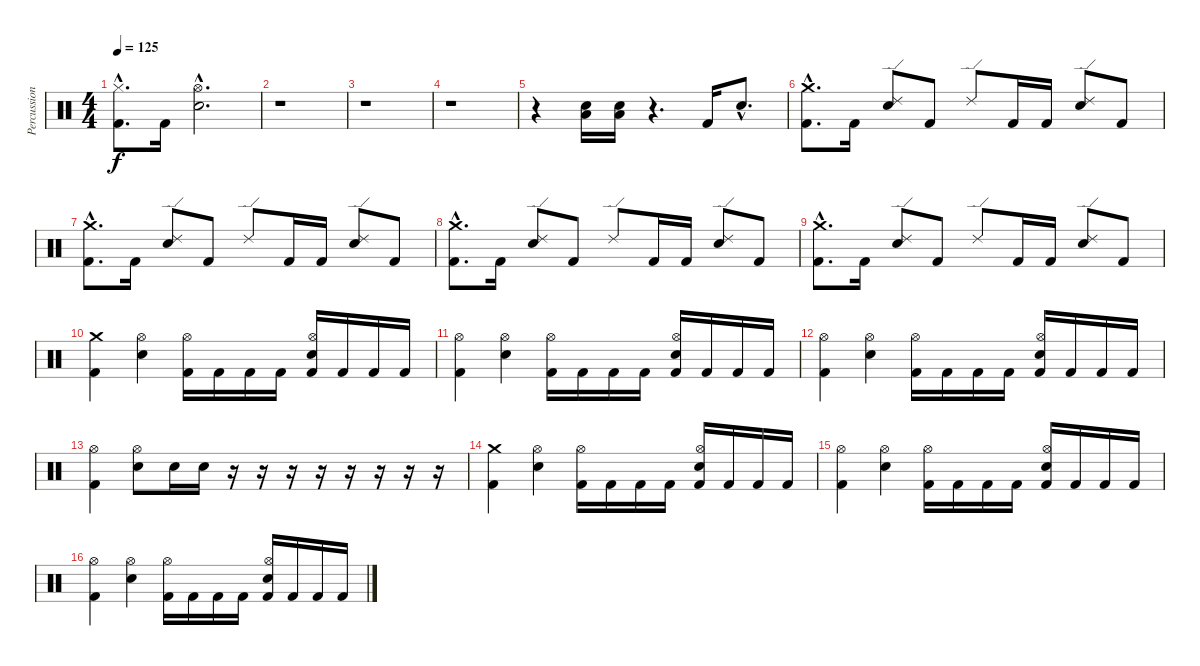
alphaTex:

\track ("Percussion" "Percussion") {instrument percussion}
\staff {score}
\articulation defaults
\ts (4 4)
\tempo 125
\clef neutral
\ks c
("Hi-Hat (closed)"{hac} "Kick (hit) 2"{hac}).8{d dy f} "Kick (hit) 2".16 ("Hi-Hat (open)"{hac} "Electric Snare (hit)"{hac}).2{d} |
r.1 |
r.1 |
r.1 |
r.4 ("Low Floor Tom (hit)" "Electric Snare (hit)").16 ("Low Floor Tom (hit)" "Electric Snare (hit)").16 r.4{d} "Kick (hit) 2".16 "Electric Snare (hit)"{hac}.8{d} |
("Crash medium (hit)"{hac} "Kick (hit) 2"{hac}).8{d} "Kick (hit) 2".16 ("Ride (edge) 2" "Electric Snare (hit)").8 "Kick (hit) 2".8 "Ride (edge) 2".8 "Kick (hit) 2".16 "Kick (hit) 2".16 ("Ride (edge) 2" "Electric Snare (hit)").8 "Kick (hit) 2".8 |
("Crash medium (hit)"{hac} "Kick (hit) 2"{hac}).8{d} "Kick (hit) 2".16 ("Ride (edge) 2" "Electric Snare (hit)").8 "Kick (hit) 2".8 "Ride (edge) 2".8 "Kick (hit) 2".16 "Kick (hit) 2".16 ("Ride (edge) 2" "Electric Snare (hit)").8 "Kick (hit) 2".8 |
("Crash medium (hit)"{hac} "Kick (hit) 2"{hac}).8{d} "Kick (hit) 2".16 ("Ride (edge) 2" "Electric Snare (hit)").8 "Kick (hit) 2".8 "Ride (edge) 2".8 "Kick (hit) 2".16 "Kick (hit) 2".16 ("Ride (edge) 2" "Electric Snare (hit)").8 "Kick (hit) 2".8 |
("Crash medium (hit)"{hac} "Kick (hit) 2"{hac}).8{d} "Kick (hit) 2".16 ("Ride (edge) 2" "Electric Snare (hit)").8 "Kick (hit) 2".8 "Ride (edge) 2".8 "Kick (hit) 2".16 "Kick (hit) 2".16 ("Ride (edge) 2" "Electric Snare (hit)").8 "Kick (hit) 2".8 |
("Crash medium (hit)" "Kick (hit) 2").4 ("Hi-Hat (open)" "Electric Snare (hit)").4 ("Hi-Hat (open)" "Kick (hit) 2").16 "Kick (hit) 2".16 "Kick (hit) 2".16 "Kick (hit) 2".16 ("Hi-Hat (open)" "Electric Snare (hit)" "Kick (hit) 2").16 "Kick (hit) 2".16 "Kick (hit) 2".16 "Kick (hit) 2".16 |
("Hi-Hat (open)" "Kick (hit) 2").4 ("Hi-Hat (open)" "Electric Snare (hit)").4 ("Hi-Hat (open)" "Kick (hit) 2").16 "Kick (hit) 2".16 "Kick (hit) 2".16 "Kick (hit) 2".16 ("Hi-Hat (open)" "Electric Snare (hit)" "Kick (hit) 2").16 "Kick (hit) 2".16 "Kick (hit) 2".16 "Kick (hit) 2".16 |
("Hi-Hat (open)" "Kick (hit) 2").4 ("Hi-Hat (open)" "Electric Snare (hit)").4 ("Hi-Hat (open)" "Kick (hit) 2").16 "Kick (hit) 2".16 "Kick (hit) 2".16 "Kick (hit) 2".16 ("Hi-Hat (open)" "Electric Snare (hit)" "Kick (hit) 2").16 "Kick (hit) 2".16 "Kick (hit) 2".16 "Kick (hit) 2".16 |
("Hi-Hat (open)" "Kick (hit) 2").4 ("Hi-Hat (open)" "Electric Snare (hit)").8 "Electric Snare (hit)".16 "Electric Snare (hit)".16 r.16 r.16 r.16 r.16 r.16 r.16 r.16 r.16 |
("Crash medium (hit)" "Kick (hit) 2").4 ("Hi-Hat (open)" "Electric Snare (hit)").4 ("Hi-Hat (open)" "Kick (hit) 2").16 "Kick (hit) 2".16 "Kick (hit) 2".16 "Kick (hit) 2".16 ("Hi-Hat (open)" "Electric Snare (hit)" "Kick (hit) 2").16 "Kick (hit) 2".16 "Kick (hit) 2".16 "Kick (hit) 2".16 |
("Hi-Hat (open)" "Kick (hit) 2").4 ("Hi-Hat (open)" "Electric Snare (hit)").4 ("Hi-Hat (open)" "Kick (hit) 2").16 "Kick (hit) 2".16 "Kick (hit) 2".16 "Kick (hit) 2".16 ("Hi-Hat (open)" "Electric Snare (hit)" "Kick (hit) 2").16 "Kick (hit) 2".16 "Kick (hit) 2".16 "Kick (hit) 2".16 |
("Hi-Hat (open)" "Kick (hit) 2").4 ("Hi-Hat (open)" "Electric Snare (hit)").4 ("Hi-Hat (open)" "Kick (hit) 2").16 "Kick (hit) 2".16 "Kick (hit) 2".16 "Kick (hit) 2".16 ("Hi-Hat (open)" "Electric Snare (hit)" "Kick (hit) 2").16 "Kick (hit) 2".16 "Kick (hit) 2".16 "Kick (hit) 2".16
